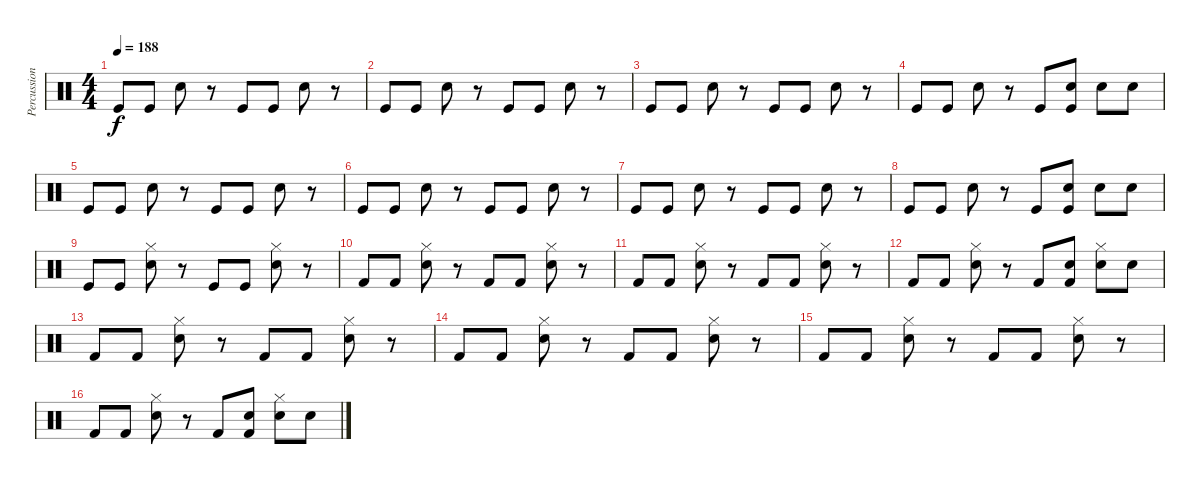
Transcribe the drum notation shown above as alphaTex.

\track ("Percussion" "Percussion") {instrument percussion}
\staff {score}
\articulation defaults
\ts (4 4)
\tempo 188
\clef neutral
\ks c "Kick (hit)".8{dy f} "Kick (hit)".8 "Snare (hit) 2".8
r.8 "Kick (hit)".8 "Kick (hit)".8 "Snare (hit) 2".8 r.8 |
"Kick (hit)".8 "Kick (hit)".8 "Snare (hit) 2".8 r.8 "Kick (hit)".8 "Kick (hit)".8 "Snare (hit) 2".8 r.8 |
"Kick (hit)".8 "Kick (hit)".8 "Snare (hit) 2".8 r.8 "Kick (hit)".8 "Kick (hit)".8 "Snare (hit) 2".8 r.8 |
"Kick (hit)".8 "Kick (hit)".8 "Snare (hit) 2".8 r.8 "Kick (hit)".8 ("Snare (hit) 2" "Kick (hit)").8 "Snare (hit) 2".8 "Snare (hit) 2".8 |
"Kick (hit)".8 "Kick (hit)".8 "Snare (hit) 2".8 r.8 "Kick (hit)".8 "Kick (hit)".8 "Snare (hit) 2".8 r.8 |
"Kick (hit)".8 "Kick (hit)".8 "Snare (hit) 2".8 r.8 "Kick (hit)".8 "Kick (hit)".8 "Snare (hit) 2".8 r.8 |
"Kick (hit)".8 "Kick (hit)".8 "Snare (hit) 2".8 r.8 "Kick (hit)".8 "Kick (hit)".8 "Snare (hit) 2".8 r.8 |
"Kick (hit)".8 "Kick (hit)".8 "Snare (hit) 2".8 r.8 "Kick (hit)".8 ("Snare (hit) 2" "Kick (hit)").8 "Snare (hit) 2".8 "Snare (hit) 2".8 |
"Kick (hit)".8 "Kick (hit)".8 ("Hi-Hat (closed)" "Snare (hit) 2").8 r.8 "Kick (hit)".8 "Kick (hit)".8 ("Hi-Hat (closed)" "Snare (hit) 2").8 r.8 |
"Kick (hit) 2".8 "Kick (hit) 2".8 ("Hi-Hat (closed)" "Snare (hit) 2").8 r.8 "Kick (hit) 2".8 "Kick (hit) 2".8 ("Hi-Hat (closed)" "Snare (hit) 2").8 r.8 |
"Kick (hit) 2".8 "Kick (hit) 2".8 ("Hi-Hat (closed)" "Snare (hit) 2").8 r.8 "Kick (hit) 2".8 "Kick (hit) 2".8 ("Hi-Hat (closed)" "Snare (hit) 2").8 r.8 |
"Kick (hit) 2".8 "Kick (hit) 2".8 ("Hi-Hat (closed)" "Snare (hit) 2").8 r.8 "Kick (hit) 2".8 ("Snare (hit) 2" "Kick (hit) 2").8 ("Hi-Hat (closed)" "Snare (hit) 2").8 "Snare (hit) 2".8 |
"Kick (hit) 2".8 "Kick (hit) 2".8 ("Hi-Hat (closed)" "Snare (hit) 2").8 r.8 "Kick (hit) 2".8 "Kick (hit) 2".8 ("Hi-Hat (closed)" "Snare (hit) 2").8 r.8 |
"Kick (hit) 2".8 "Kick (hit) 2".8 ("Hi-Hat (closed)" "Snare (hit) 2").8 r.8 "Kick (hit) 2".8 "Kick (hit) 2".8 ("Hi-Hat (closed)" "Snare (hit) 2").8 r.8 |
"Kick (hit) 2".8 "Kick (hit) 2".8 ("Hi-Hat (closed)" "Snare (hit) 2").8 r.8 "Kick (hit) 2".8 "Kick (hit) 2".8 ("Hi-Hat (closed)" "Snare (hit) 2").8 r.8 |
"Kick (hit) 2".8 "Kick (hit) 2".8 ("Hi-Hat (closed)" "Snare (hit) 2").8 r.8 "Kick (hit) 2".8 ("Snare (hit) 2" "Kick (hit) 2").8 ("Hi-Hat (closed)" "Snare (hit) 2").8 "Snare (hit) 2".8
